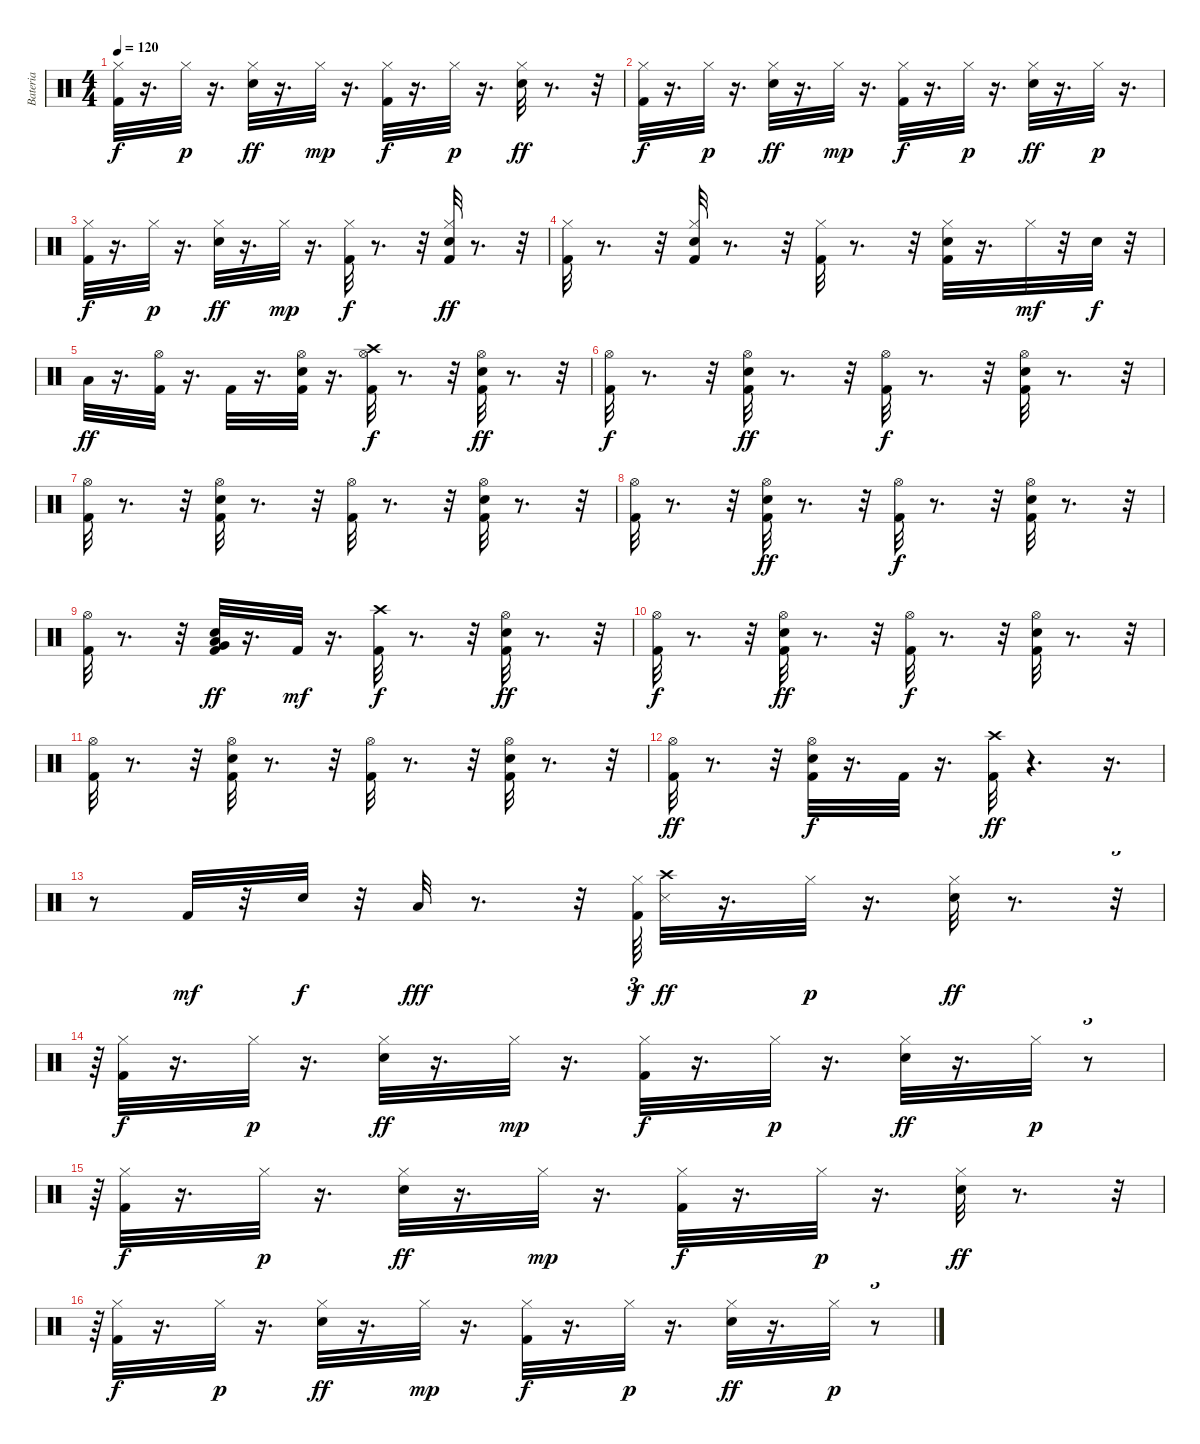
\track ("Bateria" "Bateria") {instrument percussion}
\staff {score}
\articulation defaults
\ts (4 4)
\tempo 120
\clef neutral
\ks c
("Kick (hit) 2" "Hi-Hat (closed)").32{dy f} r.16{d} "Hi-Hat (closed)".32{dy p} r.16{d} ("Electric Snare (hit)" "Hi-Hat (closed)").32{dy ff} r.16{d} "Hi-Hat (closed)".32{dy mp} r.16{d} ("Kick (hit) 2" "Hi-Hat (closed)").32{dy f} r.16{d} "Hi-Hat (closed)".32{dy p} r.16{d} ("Electric Snare (hit)" "Hi-Hat (closed)").32{dy ff} r.8{d} r.32 |
("Kick (hit) 2" "Hi-Hat (closed)").32{dy f} r.16{d} "Hi-Hat (closed)".32{dy p} r.16{d} ("Electric Snare (hit)" "Hi-Hat (closed)").32{dy ff} r.16{d} "Hi-Hat (closed)".32{dy mp} r.16{d} ("Kick (hit) 2" "Hi-Hat (closed)").32{dy f} r.16{d} "Hi-Hat (closed)".32{dy p} r.16{d} ("Hi-Hat (closed)" "Electric Snare (hit)").32{dy ff} r.16{d} "Hi-Hat (closed)".32{dy p} r.16{d} |
("Kick (hit) 2" "Hi-Hat (closed)").32{dy f} r.16{d} "Hi-Hat (closed)".32{dy p} r.16{d} ("Electric Snare (hit)" "Hi-Hat (closed)").32{dy ff} r.16{d} "Hi-Hat (closed)".32{dy mp} r.16{d} ("Hi-Hat (closed)" "Kick (hit) 2").32{dy f} r.8{d} r.32 ("Hi-Hat (closed)" "Electric Snare (hit)" "Kick (hit) 2").32{dy ff} r.8{d} r.32 |
("Hi-Hat (closed)" "Kick (hit) 2").32 r.8{d} r.32 ("Hi-Hat (closed)" "Electric Snare (hit)" "Kick (hit) 2").32 r.8{d} r.32 ("Kick (hit) 2" "Hi-Hat (closed)").32 r.8{d} r.32 ("Hi-Hat (closed)" "Electric Snare (hit)" "Kick (hit) 2").32 r.16{d} "Hi-Hat (closed)".32{dy mf} r.32 "Electric Snare (hit)".32{dy f} r.32 |
"Low Tom (hit)".32{dy ff} r.16{d} ("Kick (hit) 2" "Hi-Hat (open)").32 r.16{d} "Kick (hit) 2".32 r.16{d} ("Kick (hit) 2" "Hi-Hat (open)" "Electric Snare (hit)").32 r.16{d} ("Kick (hit) 2" "Crash high (hit)" "Hi-Hat (open)").32{dy f} r.8{d} r.32 ("Electric Snare (hit)" "Kick (hit) 2" "Hi-Hat (open)").32{dy ff} r.8{d} r.32 |
("Hi-Hat (open)" "Kick (hit) 2").32{dy f} r.8{d} r.32 ("Electric Snare (hit)" "Hi-Hat (open)" "Kick (hit) 2").32{dy ff} r.8{d} r.32 ("Hi-Hat (open)" "Kick (hit) 2").32{dy f} r.8{d} r.32 ("Hi-Hat (open)" "Kick (hit) 2" "Electric Snare (hit)").32 r.8{d} r.32 |
("Hi-Hat (open)" "Kick (hit) 2").32 r.8{d} r.32 ("Hi-Hat (open)" "Kick (hit) 2" "Electric Snare (hit)").32 r.8{d} r.32 ("Hi-Hat (open)" "Kick (hit) 2").32 r.8{d} r.32 ("Hi-Hat (open)" "Electric Snare (hit)" "Kick (hit) 2").32 r.8{d} r.32 |
("Hi-Hat (open)" "Kick (hit) 2").32 r.8{d} r.32 ("Kick (hit) 2" "Electric Snare (hit)" "Hi-Hat (open)").32{dy ff} r.8{d} r.32 ("Hi-Hat (open)" "Kick (hit) 2").32{dy f} r.8{d} r.32 ("Hi-Hat (open)" "Kick (hit) 2" "Electric Snare (hit)").32 r.8{d} r.32 |
("Kick (hit) 2" "Hi-Hat (open)").32 r.8{d} r.32 ("Kick (hit) 2" "Electric Snare (hit)" "Very Low Tom (hit)" "Low Tom (hit)").32{dy ff} r.16{d} "Kick (hit) 2".32{dy mf} r.16{d} ("Crash high (hit)" "Kick (hit) 2").32{dy f} r.8{d} r.32 ("Hi-Hat (open)" "Electric Snare (hit)" "Kick (hit) 2").32{dy ff} r.8{d} r.32 |
("Hi-Hat (open)" "Kick (hit) 2").32{dy f} r.8{d} r.32 ("Hi-Hat (open)" "Kick (hit) 2" "Electric Snare (hit)").32{dy ff} r.8{d} r.32 ("Hi-Hat (open)" "Kick (hit) 2").32{dy f} r.8{d} r.32 ("Kick (hit) 2" "Electric Snare (hit)" "Hi-Hat (open)").32 r.8{d} r.32 |
("Hi-Hat (open)" "Kick (hit) 2").32 r.8{d} r.32 ("Hi-Hat (open)" "Kick (hit) 2" "Electric Snare (hit)").32 r.8{d} r.32 ("Hi-Hat (open)" "Kick (hit) 2").32 r.8{d} r.32 ("Electric Snare (hit)" "Kick (hit) 2" "Hi-Hat (open)").32 r.8{d} r.32 |
("Hi-Hat (open)" "Kick (hit) 2").32{dy ff} r.8{d} r.32 ("Kick (hit) 2" "Electric Snare (hit)" "Hi-Hat (open)").32{dy f} r.16{d} "Kick (hit) 2".32 r.16{d} ("Kick (hit) 2" "Crash high (hit)").32{dy ff} r.4{d} r.16{d} |
r.8 "Kick (hit) 2".32{dy mf} r.32 "Electric Snare (hit)".32{dy f} r.32 "Low Tom (hit)".32{dy fff} r.8{d} r.32 ("Kick (hit) 2" "Hi-Hat (closed)").64{tu (3 2) dy f} ("Crash high (hit)" "Snare (side stick) 3").32{dy ff} r.16{d} "Hi-Hat (closed)".32{dy p} r.16{d} ("Electric Snare (hit)" "Hi-Hat (closed)").32{dy ff} r.8{d} r.32{tu (3 2)} |
r.64{tu (3 2)} ("Kick (hit) 2" "Hi-Hat (closed)").32{dy f} r.16{d} "Hi-Hat (closed)".32{dy p} r.16{d} ("Electric Snare (hit)" "Hi-Hat (closed)").32{dy ff} r.16{d} "Hi-Hat (closed)".32{dy mp} r.16{d} ("Kick (hit) 2" "Hi-Hat (closed)").32{dy f} r.16{d} "Hi-Hat (closed)".32{dy p} r.16{d} ("Hi-Hat (closed)" "Electric Snare (hit)").32{dy ff} r.16{d} "Hi-Hat (closed)".32{dy p} r.8{tu (3 2)} |
r.64{tu (3 2)} ("Kick (hit) 2" "Hi-Hat (closed)").32{dy f} r.16{d} "Hi-Hat (closed)".32{dy p} r.16{d} ("Electric Snare (hit)" "Hi-Hat (closed)").32{dy ff} r.16{d} "Hi-Hat (closed)".32{dy mp} r.16{d} ("Kick (hit) 2" "Hi-Hat (closed)").32{dy f} r.16{d} "Hi-Hat (closed)".32{dy p} r.16{d} ("Electric Snare (hit)" "Hi-Hat (closed)").32{dy ff} r.8{d} r.32{tu (3 2)} |
r.64{tu (3 2)} ("Kick (hit) 2" "Hi-Hat (closed)").32{dy f} r.16{d} "Hi-Hat (closed)".32{dy p} r.16{d} ("Electric Snare (hit)" "Hi-Hat (closed)").32{dy ff} r.16{d} "Hi-Hat (closed)".32{dy mp} r.16{d} ("Kick (hit) 2" "Hi-Hat (closed)").32{dy f} r.16{d} "Hi-Hat (closed)".32{dy p} r.16{d} ("Hi-Hat (closed)" "Electric Snare (hit)").32{dy ff} r.16{d} "Hi-Hat (closed)".32{dy p} r.8{tu (3 2)}
